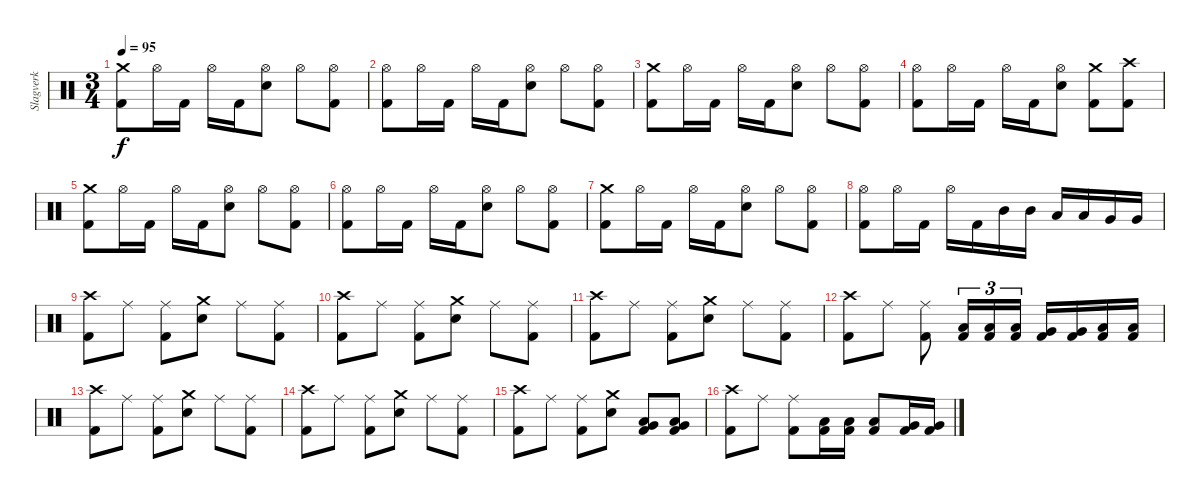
\track ("Slagverk" "Slagverk") {instrument percussion}
\staff {score}
\articulation defaults
\ts (3 4)
\tempo 95
\clef neutral
\ks c
("Crash medium (hit)" "Kick (hit) 2").8{dy f} "Hi-Hat (open)".16 "Kick (hit) 2".16 "Hi-Hat (open)".16 "Kick (hit) 2".16 ("Hi-Hat (open)" "Electric Snare (hit)").8 "Hi-Hat (open)".8 ("Hi-Hat (open)" "Kick (hit) 2").8 |
("Hi-Hat (open)" "Kick (hit) 2").8 "Hi-Hat (open)".16 "Kick (hit) 2".16 "Hi-Hat (open)".16 "Kick (hit) 2".16 ("Hi-Hat (open)" "Electric Snare (hit)").8 "Hi-Hat (open)".8 ("Hi-Hat (open)" "Kick (hit) 2").8 |
("Crash medium (hit)" "Kick (hit) 2").8 "Hi-Hat (open)".16 "Kick (hit) 2".16 "Hi-Hat (open)".16 "Kick (hit) 2".16 ("Hi-Hat (open)" "Electric Snare (hit)").8 "Hi-Hat (open)".8 ("Hi-Hat (open)" "Kick (hit) 2").8 |
("Hi-Hat (open)" "Kick (hit) 2").8 "Hi-Hat (open)".16 "Kick (hit) 2".16 "Hi-Hat (open)".16 "Kick (hit) 2".16 ("Hi-Hat (open)" "Electric Snare (hit)").8 ("Crash medium (hit)" "Kick (hit) 2").8 ("Crash high (hit)" "Kick (hit) 2").8 |
("Crash medium (hit)" "Kick (hit) 2").8 "Hi-Hat (open)".16 "Kick (hit) 2".16 "Hi-Hat (open)".16 "Kick (hit) 2".16 ("Hi-Hat (open)" "Electric Snare (hit)").8 "Hi-Hat (open)".8 ("Hi-Hat (open)" "Kick (hit) 2").8 |
("Hi-Hat (open)" "Kick (hit) 2").8 "Hi-Hat (open)".16 "Kick (hit) 2".16 "Hi-Hat (open)".16 "Kick (hit) 2".16 ("Hi-Hat (open)" "Electric Snare (hit)").8 "Hi-Hat (open)".8 ("Hi-Hat (open)" "Kick (hit) 2").8 |
("Crash medium (hit)" "Kick (hit) 2").8 "Hi-Hat (open)".16 "Kick (hit) 2".16 "Hi-Hat (open)".16 "Kick (hit) 2".16 ("Hi-Hat (open)" "Electric Snare (hit)").8 "Hi-Hat (open)".8 ("Hi-Hat (open)" "Kick (hit) 2").8 |
("Hi-Hat (open)" "Kick (hit) 2").8 "Hi-Hat (open)".16 "Kick (hit) 2".16 "Hi-Hat (open)".16 "Kick (hit) 2".16 "Mid Tom (hit)".16 "Mid Tom (hit)".16 "Low Tom (hit)".16 "Low Tom (hit)".16 "Very Low Tom (hit)".16 "Very Low Tom (hit)".16 |
("Crash high (hit)" "Kick (hit) 2").8 "Ride (middle)".8 ("Ride (middle)" "Kick (hit) 2").8 ("Crash medium (hit)" "Electric Snare (hit)").8 "Ride (middle)".8 ("Ride (middle)" "Kick (hit) 2").8 |
("Crash high (hit)" "Kick (hit) 2").8 "Ride (middle)".8 ("Ride (middle)" "Kick (hit) 2").8 ("Crash medium (hit)" "Electric Snare (hit)").8 "Ride (middle)".8 ("Ride (middle)" "Kick (hit) 2").8 |
("Crash high (hit)" "Kick (hit) 2").8 "Ride (middle)".8 ("Ride (middle)" "Kick (hit) 2").8 ("Crash medium (hit)" "Electric Snare (hit)").8 "Ride (middle)".8 ("Ride (middle)" "Kick (hit) 2").8 |
("Crash high (hit)" "Kick (hit) 2").8 "Ride (middle)".8 ("Ride (middle)" "Kick (hit) 2").8 ("Low Tom (hit)" "Kick (hit) 2").16{tu (3 2)} ("Low Tom (hit)" "Kick (hit) 2").16{tu (3 2)} ("Low Tom (hit)" "Kick (hit) 2").16{tu (3 2)} ("Very Low Tom (hit)" "Kick (hit) 2").16 ("Very Low Tom (hit)" "Kick (hit) 2").16 ("Low Floor Tom (hit)" "Kick (hit) 2").16 ("Low Floor Tom (hit)" "Kick (hit) 2").16 |
("Crash high (hit)" "Kick (hit) 2").8 "Ride (middle)".8 ("Ride (middle)" "Kick (hit) 2").8 ("Crash medium (hit)" "Electric Snare (hit)").8 "Ride (middle)".8 ("Ride (middle)" "Kick (hit) 2").8 |
("Crash high (hit)" "Kick (hit) 2").8 "Ride (middle)".8 ("Ride (middle)" "Kick (hit) 2").8 ("Crash medium (hit)" "Electric Snare (hit)").8 "Ride (middle)".8 ("Ride (middle)" "Kick (hit) 2").8 |
("Crash high (hit)" "Kick (hit) 2").8 "Ride (middle)".8 ("Ride (middle)" "Kick (hit) 2").8 ("Crash medium (hit)" "Electric Snare (hit)").8 ("Low Tom (hit)" "Very Low Tom (hit)" "Kick (hit) 2").8 ("Low Tom (hit)" "Very Low Tom (hit)" "Kick (hit) 2").8 |
("Crash high (hit)" "Kick (hit) 2").8 "Ride (middle)".8 ("Ride (middle)" "Kick (hit) 2").8 ("Low Tom (hit)" "Kick (hit) 2").16 ("Low Tom (hit)" "Kick (hit) 2").16 ("Low Tom (hit)" "Kick (hit) 2").8 ("Very Low Tom (hit)" "Kick (hit) 2").16 ("Very Low Tom (hit)" "Kick (hit) 2").16
